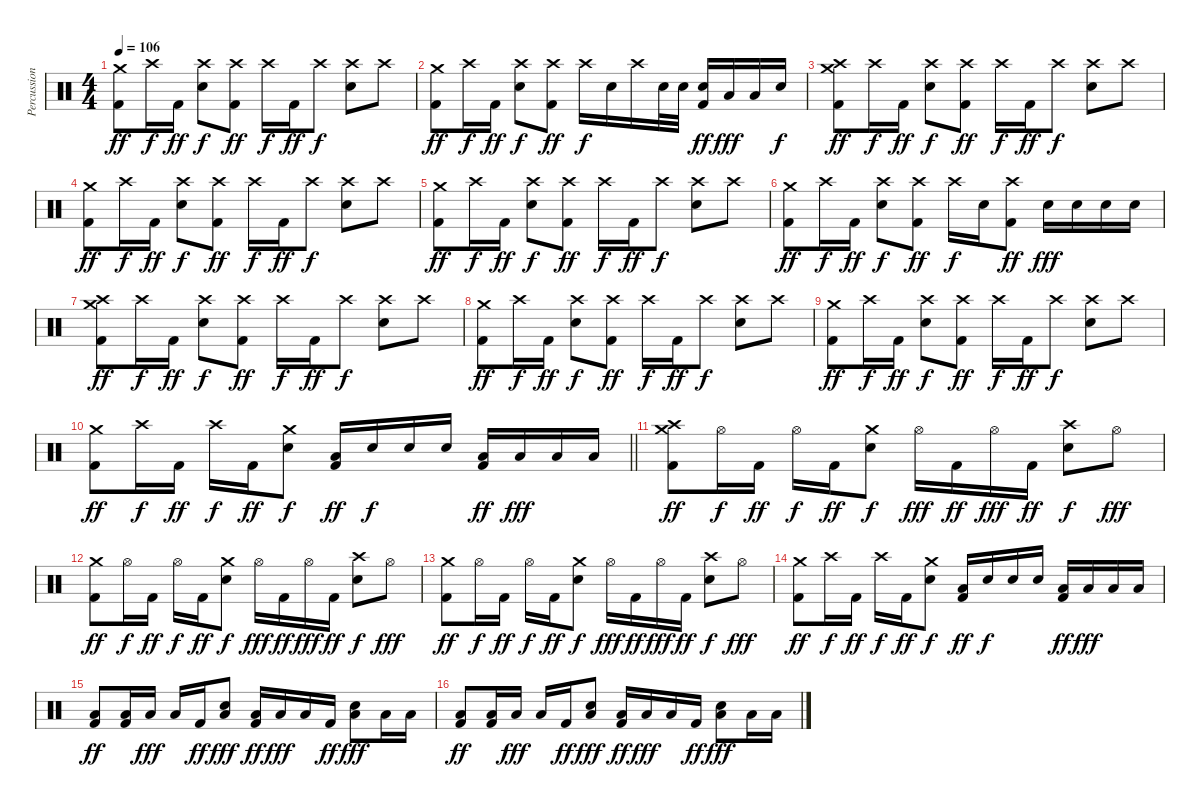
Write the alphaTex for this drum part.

\track ("Percussion" "Percussion") {instrument percussion}
\staff {score}
\articulation defaults
\ts (4 4)
\tempo 106
\clef neutral
\ks c
("Crash medium (hit)" "Kick (hit) 2").8{dy ff} "Crash high (hit)".16{dy f} "Kick (hit) 2".16{dy ff} ("Crash high (hit)" "Electric Snare (hit)").8{dy f} ("Crash high (hit)" "Kick (hit) 2").8{dy ff} "Crash high (hit)".16{dy f} "Kick (hit) 2".16{dy ff} "Crash high (hit)".8{dy f} ("Crash high (hit)" "Electric Snare (hit)").8 "Crash high (hit)".8 |
("Crash medium (hit)" "Kick (hit) 2").8{dy ff} "Crash high (hit)".16{dy f} "Kick (hit) 2".16{dy ff} ("Crash high (hit)" "Electric Snare (hit)").8{dy f} ("Crash high (hit)" "Kick (hit) 2").8{dy ff} "Crash high (hit)".16{dy f} "Electric Snare (hit)".16 "Crash high (hit)".16 "Electric Snare (hit)".32 "Electric Snare (hit)".32 ("Electric Snare (hit)" "Kick (hit) 2").16{dy ff} "Low Tom (hit)".16{dy fff} "Low Floor Tom (hit)".16 "Electric Snare (hit)".16{dy f} |
("Crash medium (hit)" "Crash high (hit)" "Kick (hit) 2").8{dy ff} "Crash high (hit)".16{dy f} "Kick (hit) 2".16{dy ff} ("Crash high (hit)" "Electric Snare (hit)").8{dy f} ("Crash high (hit)" "Kick (hit) 2").8{dy ff} "Crash high (hit)".16{dy f} "Kick (hit) 2".16{dy ff} "Crash high (hit)".8{dy f} ("Crash high (hit)" "Electric Snare (hit)").8 "Crash high (hit)".8 |
("Crash medium (hit)" "Kick (hit) 2").8{dy ff} "Crash high (hit)".16{dy f} "Kick (hit) 2".16{dy ff} ("Crash high (hit)" "Electric Snare (hit)").8{dy f} ("Crash high (hit)" "Kick (hit) 2").8{dy ff} "Crash high (hit)".16{dy f} "Kick (hit) 2".16{dy ff} "Crash high (hit)".8{dy f} ("Crash high (hit)" "Electric Snare (hit)").8 "Crash high (hit)".8 |
("Crash medium (hit)" "Kick (hit) 2").8{dy ff} "Crash high (hit)".16{dy f} "Kick (hit) 2".16{dy ff} ("Crash high (hit)" "Electric Snare (hit)").8{dy f} ("Crash high (hit)" "Kick (hit) 2").8{dy ff} "Crash high (hit)".16{dy f} "Kick (hit) 2".16{dy ff} "Crash high (hit)".8{dy f} ("Crash high (hit)" "Electric Snare (hit)").8 "Crash high (hit)".8 |
("Crash medium (hit)" "Kick (hit) 2").8{dy ff} "Crash high (hit)".16{dy f} "Kick (hit) 2".16{dy ff} ("Crash high (hit)" "Electric Snare (hit)").8{dy f} ("Crash high (hit)" "Kick (hit) 2").8{dy ff} "Crash high (hit)".16{dy f} "Electric Snare (hit)".16 ("Crash high (hit)" "Kick (hit) 2").8{dy ff} "Electric Snare (hit)".16{dy fff} "Electric Snare (hit)".16 "Electric Snare (hit)".16 "Electric Snare (hit)".16 |
("Crash medium (hit)" "Crash high (hit)" "Kick (hit) 2").8{dy ff} "Crash high (hit)".16{dy f} "Kick (hit) 2".16{dy ff} ("Crash high (hit)" "Electric Snare (hit)").8{dy f} ("Crash high (hit)" "Kick (hit) 2").8{dy ff} "Crash high (hit)".16{dy f} "Kick (hit) 2".16{dy ff} "Crash high (hit)".8{dy f} ("Crash high (hit)" "Electric Snare (hit)").8 "Crash high (hit)".8 |
("Crash medium (hit)" "Kick (hit) 2").8{dy ff} "Crash high (hit)".16{dy f} "Kick (hit) 2".16{dy ff} ("Crash high (hit)" "Electric Snare (hit)").8{dy f} ("Crash high (hit)" "Kick (hit) 2").8{dy ff} "Crash high (hit)".16{dy f} "Kick (hit) 2".16{dy ff} "Crash high (hit)".8{dy f} ("Crash high (hit)" "Electric Snare (hit)").8 "Crash high (hit)".8 |
("Crash medium (hit)" "Kick (hit) 2").8{dy ff} "Crash high (hit)".16{dy f} "Kick (hit) 2".16{dy ff} ("Crash high (hit)" "Electric Snare (hit)").8{dy f} ("Crash high (hit)" "Kick (hit) 2").8{dy ff} "Crash high (hit)".16{dy f} "Kick (hit) 2".16{dy ff} "Crash high (hit)".8{dy f} ("Crash high (hit)" "Electric Snare (hit)").8 "Crash high (hit)".8 |
\barLineRight lightlight
("Crash medium (hit)" "Kick (hit) 2").8{dy ff} "Crash high (hit)".16{dy f} "Kick (hit) 2".16{dy ff} "Crash high (hit)".16{dy f} "Kick (hit) 2".16{dy ff} ("Crash medium (hit)" "Electric Snare (hit)").8{dy f} ("Low Floor Tom (hit)" "Kick (hit) 2").16{dy ff} "Electric Snare (hit)".16{dy f} "Electric Snare (hit)".16 "Electric Snare (hit)".16 ("Low Tom (hit)" "Kick (hit) 2").16{dy ff} "Low Tom (hit)".16{dy fff} "Low Floor Tom (hit)".16 "Low Floor Tom (hit)".16 |
("Crash medium (hit)" "Crash high (hit)" "Kick (hit) 2").8{dy ff} "Hi-Hat (open)".16{dy f} "Kick (hit) 2".16{dy ff} "Hi-Hat (open)".16{dy f} "Kick (hit) 2".16{dy ff} ("Crash medium (hit)" "Electric Snare (hit)").8{dy f} "Hi-Hat (open)".16{dy fff} "Kick (hit) 2".16{dy ff} "Hi-Hat (open)".16{dy fff} "Kick (hit) 2".16{dy ff} ("Crash high (hit)" "Electric Snare (hit)").8{dy f} "Hi-Hat (open)".8{dy fff} |
("Crash medium (hit)" "Kick (hit) 2").8{dy ff} "Hi-Hat (open)".16{dy f} "Kick (hit) 2".16{dy ff} "Hi-Hat (open)".16{dy f} "Kick (hit) 2".16{dy ff} ("Crash medium (hit)" "Electric Snare (hit)").8{dy f} "Hi-Hat (open)".16{dy fff} "Kick (hit) 2".16{dy ff} "Hi-Hat (open)".16{dy fff} "Kick (hit) 2".16{dy ff} ("Crash high (hit)" "Electric Snare (hit)").8{dy f} "Hi-Hat (open)".8{dy fff} |
("Crash medium (hit)" "Kick (hit) 2").8{dy ff} "Hi-Hat (open)".16{dy f} "Kick (hit) 2".16{dy ff} "Hi-Hat (open)".16{dy f} "Kick (hit) 2".16{dy ff} ("Crash medium (hit)" "Electric Snare (hit)").8{dy f} "Hi-Hat (open)".16{dy fff} "Kick (hit) 2".16{dy ff} "Hi-Hat (open)".16{dy fff} "Kick (hit) 2".16{dy ff} ("Crash high (hit)" "Electric Snare (hit)").8{dy f} "Hi-Hat (open)".8{dy fff} |
("Crash medium (hit)" "Kick (hit) 2").8{dy ff} "Crash high (hit)".16{dy f} "Kick (hit) 2".16{dy ff} "Crash high (hit)".16{dy f} "Kick (hit) 2".16{dy ff} ("Crash medium (hit)" "Electric Snare (hit)").8{dy f} ("Low Floor Tom (hit)" "Kick (hit) 2").16{dy ff} "Electric Snare (hit)".16{dy f} "Electric Snare (hit)".16 "Electric Snare (hit)".16 ("Low Tom (hit)" "Kick (hit) 2").16{dy ff} "Low Tom (hit)".16{dy fff} "Low Floor Tom (hit)".16 "Low Floor Tom (hit)".16 |
("Low Floor Tom (hit)" "Kick (hit) 2").8{dy ff} ("Low Floor Tom (hit)" "Kick (hit) 2").16 "Low Tom (hit)".16{dy fff} "Low Floor Tom (hit)".16 "Kick (hit) 2".16{dy ff} ("Electric Snare (hit)" "Low Floor Tom (hit)").8{dy fff} ("Low Floor Tom (hit)" "Kick (hit) 2").16{dy ff} "Low Tom (hit)".16{dy fff} "Low Floor Tom (hit)".16 "Kick (hit) 2".16{dy ff} ("Electric Snare (hit)" "Low Floor Tom (hit)").8{dy fff} "Low Tom (hit)".16 "Low Tom (hit)".16 |
("Low Floor Tom (hit)" "Kick (hit) 2").8{dy ff} ("Low Floor Tom (hit)" "Kick (hit) 2").16 "Low Tom (hit)".16{dy fff} "Low Floor Tom (hit)".16 "Kick (hit) 2".16{dy ff} ("Electric Snare (hit)" "Low Floor Tom (hit)").8{dy fff} ("Low Floor Tom (hit)" "Kick (hit) 2").16{dy ff} "Low Tom (hit)".16{dy fff} "Low Floor Tom (hit)".16 "Kick (hit) 2".16{dy ff} ("Electric Snare (hit)" "Low Floor Tom (hit)").8{dy fff} "Low Tom (hit)".16 "Low Tom (hit)".16
